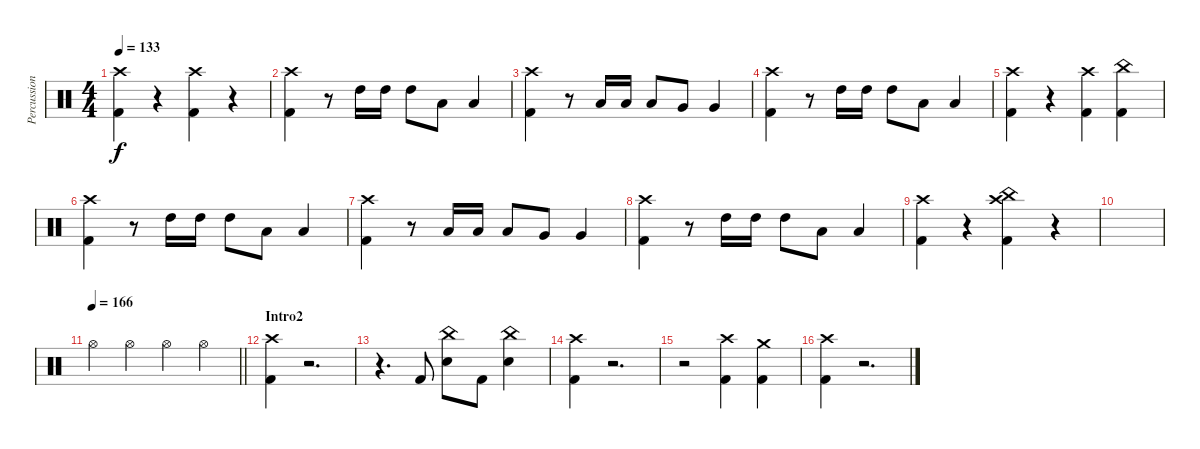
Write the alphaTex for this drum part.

\track ("Percussion" "Percussion") {solo instrument percussion}
\staff {score}
\articulation defaults
\ts (4 4)
\tempo 133
\clef neutral
\ks c
("Crash high (hit)" "Kick (hit) 2").4{dy f} r.4 ("Crash high (hit)" "Kick (hit) 2").4 r.4 |
("Crash high (hit)" "Kick (hit) 2").4 r.8 "High Tom (hit)".16 "High Tom (hit)".16 "High Tom (hit)".8 "Low Tom (hit)".8 "Low Tom (hit)".4 |
("Crash high (hit)" "Kick (hit) 2").4 r.8 "Low Tom (hit)".16 "Low Tom (hit)".16 "Low Tom (hit)".8 "Very Low Tom (hit)".8 "Very Low Tom (hit)".4 |
("Crash high (hit)" "Kick (hit) 2").4 r.8 "High Tom (hit)".16 "High Tom (hit)".16 "High Tom (hit)".8 "Low Tom (hit)".8 "Low Tom (hit)".4 |
("Crash high (hit)" "Kick (hit) 2").4 r.4 ("Crash high (hit)" "Kick (hit) 2").4 ("China (hit)" "Kick (hit) 2").4 |
("Crash high (hit)" "Kick (hit) 2").4 r.8 "High Tom (hit)".16 "High Tom (hit)".16 "High Tom (hit)".8 "Low Tom (hit)".8 "Low Tom (hit)".4 |
("Crash high (hit)" "Kick (hit) 2").4 r.8 "Low Tom (hit)".16 "Low Tom (hit)".16 "Low Tom (hit)".8 "Very Low Tom (hit)".8 "Very Low Tom (hit)".4 |
("Crash high (hit)" "Kick (hit) 2").4 r.8 "High Tom (hit)".16 "High Tom (hit)".16 "High Tom (hit)".8 "Low Tom (hit)".8 "Low Tom (hit)".4 |
("Crash high (hit)" "Kick (hit) 2").4 r.4 ("China (hit)" "Crash high (hit)" "Kick (hit) 2").4 r.4 |
|
\tempo 166
\barLineRight lightlight "Hi-Hat (open)".4 "Hi-Hat (open)".4 "Hi-Hat (open)".4 "Hi-Hat (open)".4
|
\section ("" "Intro2")
("Crash high (hit)" "Kick (hit) 2").4 r.2{d} |
r.4{d} "Kick (hit) 2".8 ("China (hit)" "Snare (hit) 2").8 "Kick (hit) 2".8 ("China (hit)" "Snare (hit) 2").4 |
("Crash high (hit)" "Kick (hit) 2").4 r.2{d} |
r.2 ("Crash high (hit)" "Kick (hit) 2").4 ("Crash medium (hit)" "Kick (hit) 2").4 |
("Crash high (hit)" "Kick (hit) 2").4 r.2{d}
